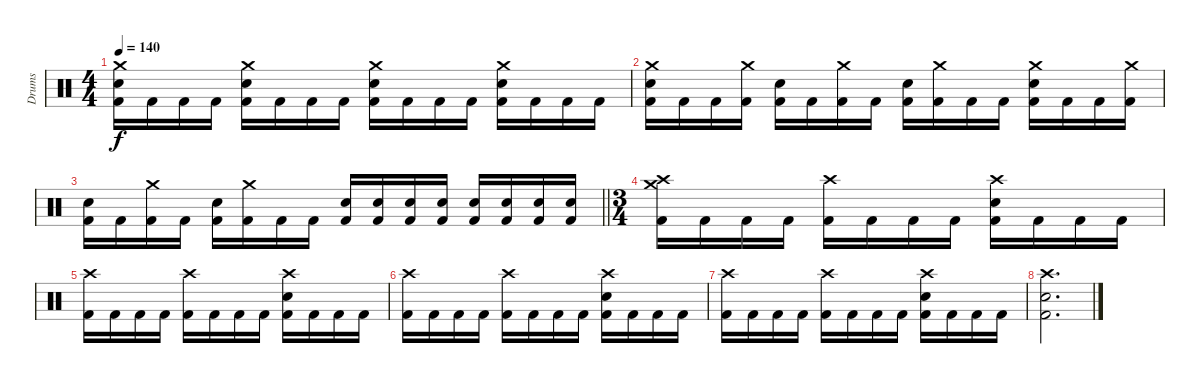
\track ("Drums" "Drums") {instrument percussion}
\staff {score}
\articulation defaults
\ts (4 4)
\tempo 140
\clef neutral
\ks c
("Crash medium (hit)" "Electric Snare (hit)" "Kick (hit) 2").16{dy f} "Kick (hit) 2".16 "Kick (hit) 2".16 "Kick (hit) 2".16 ("Crash medium (hit)" "Electric Snare (hit)" "Kick (hit) 2").16 "Kick (hit) 2".16 "Kick (hit) 2".16 "Kick (hit) 2".16 ("Crash medium (hit)" "Electric Snare (hit)" "Kick (hit) 2").16 "Kick (hit) 2".16 "Kick (hit) 2".16 "Kick (hit) 2".16 ("Crash medium (hit)" "Electric Snare (hit)" "Kick (hit) 2").16 "Kick (hit) 2".16 "Kick (hit) 2".16 "Kick (hit) 2".16 |
("Crash medium (hit)" "Electric Snare (hit)" "Kick (hit) 2").16 "Kick (hit) 2".16 "Kick (hit) 2".16 ("Crash medium (hit)" "Kick (hit) 2").16 ("Electric Snare (hit)" "Kick (hit) 2").16 "Kick (hit) 2".16 ("Crash medium (hit)" "Kick (hit) 2").16 "Kick (hit) 2".16 ("Electric Snare (hit)" "Kick (hit) 2").16 ("Crash medium (hit)" "Kick (hit) 2").16 "Kick (hit) 2".16 "Kick (hit) 2".16 ("Crash medium (hit)" "Electric Snare (hit)" "Kick (hit) 2").16 "Kick (hit) 2".16 "Kick (hit) 2".16 ("Crash medium (hit)" "Kick (hit) 2").16 |
\barLineRight lightlight
("Electric Snare (hit)" "Kick (hit) 2").16 "Kick (hit) 2".16 ("Crash medium (hit)" "Kick (hit) 2").16 "Kick (hit) 2".16 ("Electric Snare (hit)" "Kick (hit) 2").16 ("Crash medium (hit)" "Kick (hit) 2").16 "Kick (hit) 2".16 "Kick (hit) 2".16 ("Electric Snare (hit)" "Kick (hit) 2").16 ("Electric Snare (hit)" "Kick (hit) 2").16 ("Electric Snare (hit)" "Kick (hit) 2").16 ("Electric Snare (hit)" "Kick (hit) 2").16 ("Electric Snare (hit)" "Kick (hit) 2").16 ("Electric Snare (hit)" "Kick (hit) 2").16 ("Electric Snare (hit)" "Kick (hit) 2").16 ("Electric Snare (hit)" "Kick (hit) 2").16 |
\ts (3 4)
("Crash medium (hit)" "Crash high (hit)" "Kick (hit) 2").16 "Kick (hit) 2".16 "Kick (hit) 2".16 "Kick (hit) 2".16 ("Crash high (hit)" "Kick (hit) 2").16 "Kick (hit) 2".16 "Kick (hit) 2".16 "Kick (hit) 2".16 ("Crash high (hit)" "Electric Snare (hit)" "Kick (hit) 2").16 "Kick (hit) 2".16 "Kick (hit) 2".16 "Kick (hit) 2".16 |
("Crash high (hit)" "Kick (hit) 2").16 "Kick (hit) 2".16 "Kick (hit) 2".16 "Kick (hit) 2".16 ("Crash high (hit)" "Kick (hit) 2").16 "Kick (hit) 2".16 "Kick (hit) 2".16 "Kick (hit) 2".16 ("Crash high (hit)" "Electric Snare (hit)" "Kick (hit) 2").16 "Kick (hit) 2".16 "Kick (hit) 2".16 "Kick (hit) 2".16 |
("Crash high (hit)" "Kick (hit) 2").16 "Kick (hit) 2".16 "Kick (hit) 2".16 "Kick (hit) 2".16 ("Crash high (hit)" "Kick (hit) 2").16 "Kick (hit) 2".16 "Kick (hit) 2".16 "Kick (hit) 2".16 ("Crash high (hit)" "Electric Snare (hit)" "Kick (hit) 2").16 "Kick (hit) 2".16 "Kick (hit) 2".16 "Kick (hit) 2".16 |
("Crash high (hit)" "Kick (hit) 2").16 "Kick (hit) 2".16 "Kick (hit) 2".16 "Kick (hit) 2".16 ("Crash high (hit)" "Kick (hit) 2").16 "Kick (hit) 2".16 "Kick (hit) 2".16 "Kick (hit) 2".16 ("Crash high (hit)" "Electric Snare (hit)" "Kick (hit) 2").16 "Kick (hit) 2".16 "Kick (hit) 2".16 "Kick (hit) 2".16 |
("Crash high (hit)" "Electric Snare (hit)" "Kick (hit) 2").2{d}
